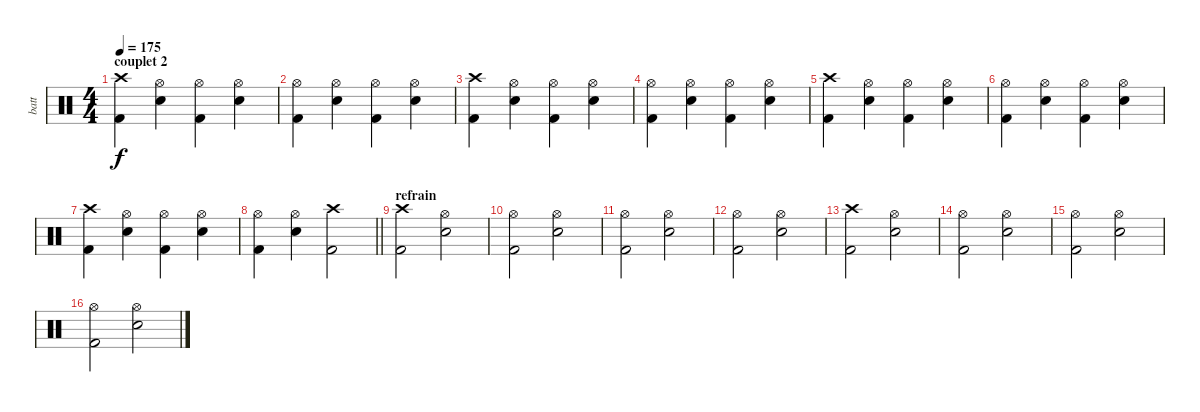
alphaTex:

\track ("batt" "batt") {instrument percussion}
\staff {score}
\articulation defaults
\ts (4 4)
\section ("" "couplet 2")
\tempo 175
\clef neutral
\ks c
("Crash high (hit)" "Kick (hit) 2").4{dy f} ("Hi-Hat (open)" "Electric Snare (hit)").4 ("Hi-Hat (open)" "Kick (hit) 2").4 ("Hi-Hat (open)" "Electric Snare (hit)").4 |
("Hi-Hat (open)" "Kick (hit) 2").4 ("Hi-Hat (open)" "Electric Snare (hit)").4 ("Hi-Hat (open)" "Kick (hit) 2").4 ("Hi-Hat (open)" "Electric Snare (hit)").4 |
("Crash high (hit)" "Kick (hit) 2").4 ("Hi-Hat (open)" "Electric Snare (hit)").4 ("Hi-Hat (open)" "Kick (hit) 2").4 ("Hi-Hat (open)" "Electric Snare (hit)").4 |
("Hi-Hat (open)" "Kick (hit) 2").4 ("Hi-Hat (open)" "Electric Snare (hit)").4 ("Hi-Hat (open)" "Kick (hit) 2").4 ("Hi-Hat (open)" "Electric Snare (hit)").4 |
("Crash high (hit)" "Kick (hit) 2").4 ("Hi-Hat (open)" "Electric Snare (hit)").4 ("Hi-Hat (open)" "Kick (hit) 2").4 ("Hi-Hat (open)" "Electric Snare (hit)").4 |
("Hi-Hat (open)" "Kick (hit) 2").4 ("Hi-Hat (open)" "Electric Snare (hit)").4 ("Hi-Hat (open)" "Kick (hit) 2").4 ("Hi-Hat (open)" "Electric Snare (hit)").4 |
("Crash high (hit)" "Kick (hit) 2").4 ("Hi-Hat (open)" "Electric Snare (hit)").4 ("Hi-Hat (open)" "Kick (hit) 2").4 ("Hi-Hat (open)" "Electric Snare (hit)").4 |
\barLineRight lightlight
("Hi-Hat (open)" "Kick (hit) 2").4 ("Hi-Hat (open)" "Electric Snare (hit)").4 ("Crash high (hit)" "Kick (hit) 2").2 |
\section ("" "refrain")
("Crash high (hit)" "Kick (hit) 2").2 ("Hi-Hat (open)" "Electric Snare (hit)").2 |
("Hi-Hat (open)" "Kick (hit) 2").2 ("Hi-Hat (open)" "Electric Snare (hit)").2 |
("Hi-Hat (open)" "Kick (hit) 2").2 ("Hi-Hat (open)" "Electric Snare (hit)").2 |
("Hi-Hat (open)" "Kick (hit) 2").2 ("Hi-Hat (open)" "Electric Snare (hit)").2 |
("Crash high (hit)" "Kick (hit) 2").2 ("Hi-Hat (open)" "Electric Snare (hit)").2 |
("Hi-Hat (open)" "Kick (hit) 2").2 ("Hi-Hat (open)" "Electric Snare (hit)").2 |
("Hi-Hat (open)" "Kick (hit) 2").2 ("Hi-Hat (open)" "Electric Snare (hit)").2 |
("Hi-Hat (open)" "Kick (hit) 2").2 ("Hi-Hat (open)" "Electric Snare (hit)").2
